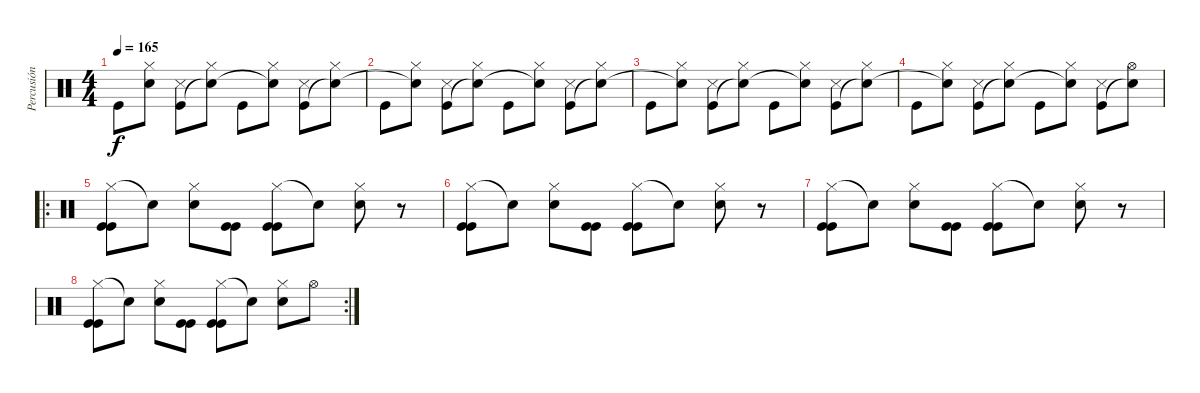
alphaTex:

\track ("Percusión" "Percusión") {instrument percussion}
\staff {score}
\articulation defaults
\ts (4 4)
\tempo 165
\clef neutral
\ks c "Kick (hit)".8{dy f}
("Hi-Hat (closed)" "Snare (hit)"{t}).8 ("Snare (side stick) 3" "Kick (hit)").8 ("Hi-Hat (closed)" "Snare (hit)"{t}).8 "Kick (hit)".8 ("Hi-Hat (closed)" "Snare (hit)"{t}).8 ("Snare (side stick) 3" "Kick (hit)").8 ("Hi-Hat (closed)" "Snare (hit)"{t}).8 |
"Kick (hit)".8 ("Hi-Hat (closed)" "Snare (hit)"{t}).8 ("Snare (side stick) 3" "Kick (hit)").8 ("Hi-Hat (closed)" "Snare (hit)"{t}).8 "Kick (hit)".8 ("Hi-Hat (closed)" "Snare (hit)"{t}).8 ("Snare (side stick) 3" "Kick (hit)").8 ("Hi-Hat (closed)" "Snare (hit)"{t}).8 |
"Kick (hit)".8 ("Hi-Hat (closed)" "Snare (hit)"{t}).8 ("Snare (side stick) 3" "Kick (hit)").8 ("Hi-Hat (closed)" "Snare (hit)"{t}).8 "Kick (hit)".8 ("Hi-Hat (closed)" "Snare (hit)"{t}).8 ("Snare (side stick) 3" "Kick (hit)").8 ("Hi-Hat (closed)" "Snare (hit)"{t}).8 |
"Kick (hit)".8 ("Hi-Hat (closed)" "Snare (hit)"{t}).8 ("Snare (side stick) 3" "Kick (hit)").8 ("Hi-Hat (closed)" "Snare (hit)"{t}).8 "Kick (hit)".8 ("Hi-Hat (closed)" "Snare (hit)"{t}).8 ("Snare (side stick) 3" "Kick (hit)").8 ("Hi-Hat (open)" "Snare (hit)"{t}).8 |
\ro
("Hi-Hat (closed)" "Kick (hit)" "Kick (hit)").8 "Snare (hit)"{t}.8 ("Hi-Hat (closed)" "Snare (hit) 2").8 ("Kick (hit)" "Kick (hit)").8 ("Hi-Hat (closed)" "Kick (hit)" "Kick (hit)").8 "Snare (hit)"{t}.8 ("Hi-Hat (closed)" "Snare (hit) 2").8 r.8 |
("Hi-Hat (closed)" "Kick (hit)" "Kick (hit)").8 "Snare (hit)"{t}.8 ("Hi-Hat (closed)" "Snare (hit) 2").8 ("Kick (hit)" "Kick (hit)").8 ("Hi-Hat (closed)" "Kick (hit)" "Kick (hit)").8 "Snare (hit)"{t}.8 ("Hi-Hat (closed)" "Snare (hit) 2").8 r.8 |
("Hi-Hat (closed)" "Kick (hit)" "Kick (hit)").8 "Snare (hit)"{t}.8 ("Hi-Hat (closed)" "Snare (hit) 2").8 ("Kick (hit)" "Kick (hit)").8 ("Hi-Hat (closed)" "Kick (hit)" "Kick (hit)").8 "Snare (hit)"{t}.8 ("Hi-Hat (closed)" "Snare (hit) 2").8 r.8 |
\rc 2
("Hi-Hat (closed)" "Kick (hit)" "Kick (hit)").8 "Snare (hit)"{t}.8 ("Hi-Hat (closed)" "Snare (hit) 2").8 ("Kick (hit)" "Kick (hit)").8 ("Hi-Hat (closed)" "Kick (hit)" "Kick (hit)").8 "Snare (hit)"{t}.8 ("Hi-Hat (closed)" "Snare (hit) 2").8 "Hi-Hat (open)".8
